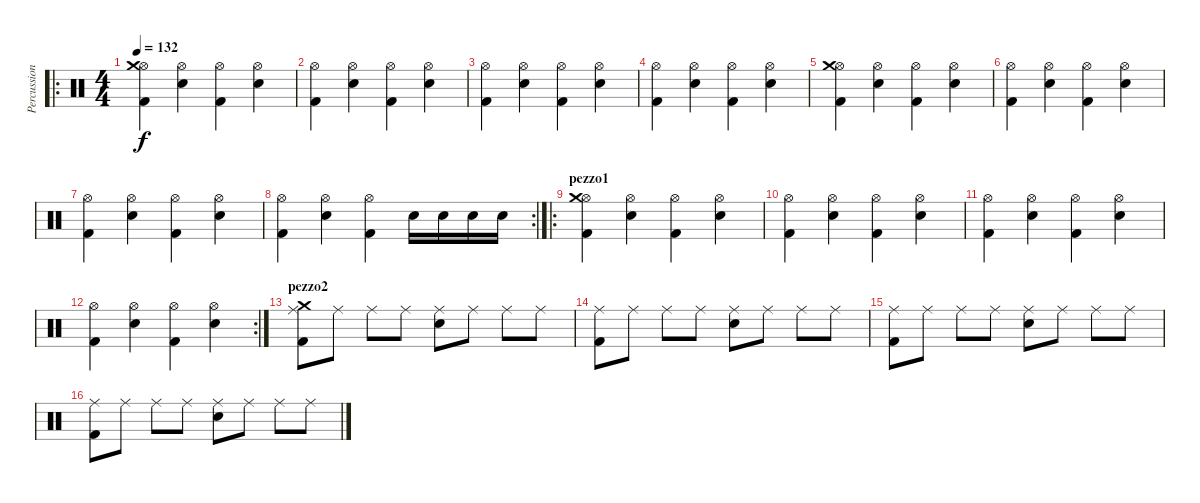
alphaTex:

\track ("Percussioni" "Percussion") {instrument percussion}
\staff {score}
\articulation defaults
\ro
\ts (4 4)
\tempo 132
\clef neutral
\ks c
("Kick (hit) 2" "Hi-Hat (open)" "Crash medium (hit)").4{dy f} ("Electric Snare (hit)" "Hi-Hat (open)").4 ("Kick (hit) 2" "Hi-Hat (open)").4 ("Electric Snare (hit)" "Hi-Hat (open)").4 |
("Kick (hit) 2" "Hi-Hat (open)").4 ("Electric Snare (hit)" "Hi-Hat (open)").4 ("Kick (hit) 2" "Hi-Hat (open)").4 ("Electric Snare (hit)" "Hi-Hat (open)").4 |
("Kick (hit) 2" "Hi-Hat (open)").4 ("Electric Snare (hit)" "Hi-Hat (open)").4 ("Kick (hit) 2" "Hi-Hat (open)").4 ("Electric Snare (hit)" "Hi-Hat (open)").4 |
("Kick (hit) 2" "Hi-Hat (open)").4 ("Electric Snare (hit)" "Hi-Hat (open)").4 ("Kick (hit) 2" "Hi-Hat (open)").4 ("Electric Snare (hit)" "Hi-Hat (open)").4 |
("Kick (hit) 2" "Hi-Hat (open)" "Crash medium (hit)").4 ("Electric Snare (hit)" "Hi-Hat (open)").4 ("Kick (hit) 2" "Hi-Hat (open)").4 ("Electric Snare (hit)" "Hi-Hat (open)").4 |
("Kick (hit) 2" "Hi-Hat (open)").4 ("Electric Snare (hit)" "Hi-Hat (open)").4 ("Kick (hit) 2" "Hi-Hat (open)").4 ("Electric Snare (hit)" "Hi-Hat (open)").4 |
("Kick (hit) 2" "Hi-Hat (open)").4 ("Electric Snare (hit)" "Hi-Hat (open)").4 ("Kick (hit) 2" "Hi-Hat (open)").4 ("Electric Snare (hit)" "Hi-Hat (open)").4 |
\rc 2
("Kick (hit) 2" "Hi-Hat (open)").4 ("Electric Snare (hit)" "Hi-Hat (open)").4 ("Kick (hit) 2" "Hi-Hat (open)").4 "Electric Snare (hit)".16 "Electric Snare (hit)".16 "Electric Snare (hit)".16 "Electric Snare (hit)".16 |
\ro
\section ("" "pezzo1")
("Kick (hit) 2" "Hi-Hat (open)" "Crash medium (hit)").4 ("Electric Snare (hit)" "Hi-Hat (open)").4 ("Kick (hit) 2" "Hi-Hat (open)").4 ("Electric Snare (hit)" "Hi-Hat (open)").4 |
("Kick (hit) 2" "Hi-Hat (open)").4 ("Electric Snare (hit)" "Hi-Hat (open)").4 ("Kick (hit) 2" "Hi-Hat (open)").4 ("Electric Snare (hit)" "Hi-Hat (open)").4 |
("Kick (hit) 2" "Hi-Hat (open)").4 ("Electric Snare (hit)" "Hi-Hat (open)").4 ("Kick (hit) 2" "Hi-Hat (open)").4 ("Electric Snare (hit)" "Hi-Hat (open)").4 |
\rc 2
("Kick (hit) 2" "Hi-Hat (open)").4 ("Electric Snare (hit)" "Hi-Hat (open)").4 ("Kick (hit) 2" "Hi-Hat (open)").4 ("Electric Snare (hit)" "Hi-Hat (open)").4 |
\section ("" "pezzo2")
("Kick (hit) 2" "Ride (middle)" "Crash medium (hit)").8 "Ride (middle)".8 "Ride (middle)".8 "Ride (middle)".8 ("Electric Snare (hit)" "Ride (middle)").8 "Ride (middle)".8 "Ride (middle)".8 "Ride (middle)".8 |
("Kick (hit) 2" "Ride (middle)").8 "Ride (middle)".8 "Ride (middle)".8 "Ride (middle)".8 ("Electric Snare (hit)" "Ride (middle)").8 "Ride (middle)".8 "Ride (middle)".8 "Ride (middle)".8 |
("Kick (hit) 2" "Ride (middle)").8 "Ride (middle)".8 "Ride (middle)".8 "Ride (middle)".8 ("Electric Snare (hit)" "Ride (middle)").8 "Ride (middle)".8 "Ride (middle)".8 "Ride (middle)".8 |
("Kick (hit) 2" "Ride (middle)").8 "Ride (middle)".8 "Ride (middle)".8 "Ride (middle)".8 ("Electric Snare (hit)" "Ride (middle)").8 "Ride (middle)".8 "Ride (middle)".8 "Ride (middle)".8
